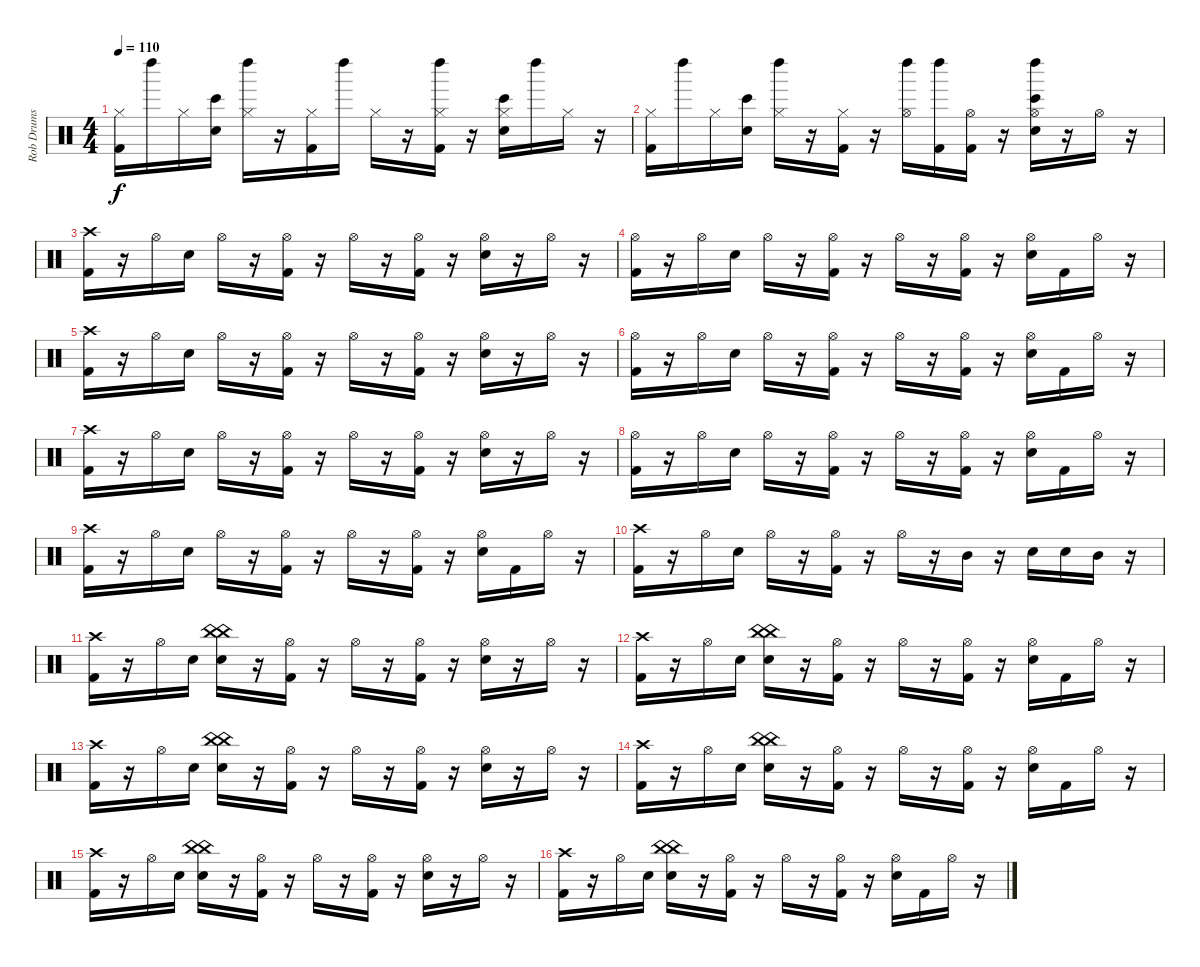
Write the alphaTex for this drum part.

\track ("Rob Drums" "Rob Drums") {instrument percussion}
\staff {score}
\articulation defaults
\ts (4 4)
\tempo 110
\clef neutral
\ks c
("Hi-Hat (closed)" "Kick (hit) 2").16{dy f} "Left Maraca (hit)".16 "Hi-Hat (closed)".16 ("Electric Snare (hit)" "Bongo High (hit)").16 ("Hi-Hat (closed)" "Left Maraca (hit)").16 r.16 ("Hi-Hat (closed)" "Kick (hit) 2").16 "Left Maraca (hit)".16 "Hi-Hat (closed)".16 r.16 ("Hi-Hat (closed)" "Left Maraca (hit)" "Kick (hit) 2").16 r.16 ("Hi-Hat (closed)" "Electric Snare (hit)" "Bongo High (hit)").16 "Left Maraca (hit)".16 "Hi-Hat (closed)".16 r.16 |
("Hi-Hat (closed)" "Kick (hit) 2").16 "Left Maraca (hit)".16 "Hi-Hat (closed)".16 ("Electric Snare (hit)" "Bongo High (hit)").16 ("Hi-Hat (closed)" "Left Maraca (hit)").16 r.16 ("Hi-Hat (closed)" "Kick (hit) 2").16 r.16 ("Hi-Hat (open)" "Left Maraca (hit)").16 ("Left Maraca (hit)" "Kick (hit) 2").16 ("Hi-Hat (open)" "Kick (hit) 2").16 r.16 ("Hi-Hat (open)" "Left Maraca (hit)" "Electric Snare (hit)" "Bongo High (hit)").16 r.16 "Hi-Hat (open)".16 r.16 |
("Crash high (hit)" "Kick (hit) 2").16 r.16 "Hi-Hat (open)".16 "Electric Snare (hit)".16 "Hi-Hat (open)".16 r.16 ("Hi-Hat (open)" "Kick (hit) 2").16 r.16 "Hi-Hat (open)".16 r.16 ("Hi-Hat (open)" "Kick (hit) 2").16 r.16 ("Hi-Hat (open)" "Electric Snare (hit)").16 r.16 "Hi-Hat (open)".16 r.16 |
("Hi-Hat (open)" "Kick (hit) 2").16 r.16 "Hi-Hat (open)".16 "Electric Snare (hit)".16 "Hi-Hat (open)".16 r.16 ("Hi-Hat (open)" "Kick (hit) 2").16 r.16 "Hi-Hat (open)".16 r.16 ("Hi-Hat (open)" "Kick (hit) 2").16 r.16 ("Hi-Hat (open)" "Electric Snare (hit)").16 "Kick (hit) 2".16 "Hi-Hat (open)".16 r.16 |
("Crash high (hit)" "Kick (hit) 2").16 r.16 "Hi-Hat (open)".16 "Electric Snare (hit)".16 "Hi-Hat (open)".16 r.16 ("Hi-Hat (open)" "Kick (hit) 2").16 r.16 "Hi-Hat (open)".16 r.16 ("Hi-Hat (open)" "Kick (hit) 2").16 r.16 ("Hi-Hat (open)" "Electric Snare (hit)").16 r.16 "Hi-Hat (open)".16 r.16 |
("Hi-Hat (open)" "Kick (hit) 2").16 r.16 "Hi-Hat (open)".16 "Electric Snare (hit)".16 "Hi-Hat (open)".16 r.16 ("Hi-Hat (open)" "Kick (hit) 2").16 r.16 "Hi-Hat (open)".16 r.16 ("Hi-Hat (open)" "Kick (hit) 2").16 r.16 ("Hi-Hat (open)" "Electric Snare (hit)").16 "Kick (hit) 2".16 "Hi-Hat (open)".16 r.16 |
("Crash high (hit)" "Kick (hit) 2").16 r.16 "Hi-Hat (open)".16 "Electric Snare (hit)".16 "Hi-Hat (open)".16 r.16 ("Hi-Hat (open)" "Kick (hit) 2").16 r.16 "Hi-Hat (open)".16 r.16 ("Hi-Hat (open)" "Kick (hit) 2").16 r.16 ("Hi-Hat (open)" "Electric Snare (hit)").16 r.16 "Hi-Hat (open)".16 r.16 |
("Hi-Hat (open)" "Kick (hit) 2").16 r.16 "Hi-Hat (open)".16 "Electric Snare (hit)".16 "Hi-Hat (open)".16 r.16 ("Hi-Hat (open)" "Kick (hit) 2").16 r.16 "Hi-Hat (open)".16 r.16 ("Hi-Hat (open)" "Kick (hit) 2").16 r.16 ("Hi-Hat (open)" "Electric Snare (hit)").16 "Kick (hit) 2".16 "Hi-Hat (open)".16 r.16 |
("Crash high (hit)" "Kick (hit) 2").16 r.16 "Hi-Hat (open)".16 "Electric Snare (hit)".16 "Hi-Hat (open)".16 r.16 ("Hi-Hat (open)" "Kick (hit) 2").16 r.16 "Hi-Hat (open)".16 r.16 ("Hi-Hat (open)" "Kick (hit) 2").16 r.16 ("Hi-Hat (open)" "Electric Snare (hit)").16 "Kick (hit) 2".16 "Hi-Hat (open)".16 r.16 |
("Crash high (hit)" "Kick (hit) 2").16 r.16 "Hi-Hat (open)".16 "Electric Snare (hit)".16 "Hi-Hat (open)".16 r.16 ("Hi-Hat (open)" "Kick (hit) 2").16 r.16 "Hi-Hat (open)".16 r.16 "Mid Tom (hit)".16 r.16 "Electric Snare (hit)".16 "Electric Snare (hit)".16 "Mid Tom (hit)".16 r.16 |
("Crash high (hit)" "Kick (hit) 2").16 r.16 "Hi-Hat (open)".16 "Electric Snare (hit)".16 ("China (hit)" "China (hit)" "Electric Snare (hit)").16 r.16 ("Hi-Hat (open)" "Kick (hit) 2").16 r.16 "Hi-Hat (open)".16 r.16 ("Hi-Hat (open)" "Kick (hit) 2").16 r.16 ("Hi-Hat (open)" "Electric Snare (hit)").16 r.16 "Hi-Hat (open)".16 r.16 |
("Crash high (hit)" "Kick (hit) 2").16 r.16 "Hi-Hat (open)".16 "Electric Snare (hit)".16 ("China (hit)" "China (hit)" "Electric Snare (hit)").16 r.16 ("Hi-Hat (open)" "Kick (hit) 2").16 r.16 "Hi-Hat (open)".16 r.16 ("Hi-Hat (open)" "Kick (hit) 2").16 r.16 ("Hi-Hat (open)" "Electric Snare (hit)").16 "Kick (hit) 2".16 "Hi-Hat (open)".16 r.16 |
("Crash high (hit)" "Kick (hit) 2").16 r.16 "Hi-Hat (open)".16 "Electric Snare (hit)".16 ("China (hit)" "China (hit)" "Electric Snare (hit)").16 r.16 ("Hi-Hat (open)" "Kick (hit) 2").16 r.16 "Hi-Hat (open)".16 r.16 ("Hi-Hat (open)" "Kick (hit) 2").16 r.16 ("Hi-Hat (open)" "Electric Snare (hit)").16 r.16 "Hi-Hat (open)".16 r.16 |
("Crash high (hit)" "Kick (hit) 2").16 r.16 "Hi-Hat (open)".16 "Electric Snare (hit)".16 ("China (hit)" "China (hit)" "Electric Snare (hit)").16 r.16 ("Hi-Hat (open)" "Kick (hit) 2").16 r.16 "Hi-Hat (open)".16 r.16 ("Hi-Hat (open)" "Kick (hit) 2").16 r.16 ("Hi-Hat (open)" "Electric Snare (hit)").16 "Kick (hit) 2".16 "Hi-Hat (open)".16 r.16 |
("Crash high (hit)" "Kick (hit) 2").16 r.16 "Hi-Hat (open)".16 "Electric Snare (hit)".16 ("China (hit)" "China (hit)" "Electric Snare (hit)").16 r.16 ("Hi-Hat (open)" "Kick (hit) 2").16 r.16 "Hi-Hat (open)".16 r.16 ("Hi-Hat (open)" "Kick (hit) 2").16 r.16 ("Hi-Hat (open)" "Electric Snare (hit)").16 r.16 "Hi-Hat (open)".16 r.16 |
("Crash high (hit)" "Kick (hit) 2").16 r.16 "Hi-Hat (open)".16 "Electric Snare (hit)".16 ("China (hit)" "China (hit)" "Electric Snare (hit)").16 r.16 ("Hi-Hat (open)" "Kick (hit) 2").16 r.16 "Hi-Hat (open)".16 r.16 ("Hi-Hat (open)" "Kick (hit) 2").16 r.16 ("Hi-Hat (open)" "Electric Snare (hit)").16 "Kick (hit) 2".16 "Hi-Hat (open)".16 r.16
